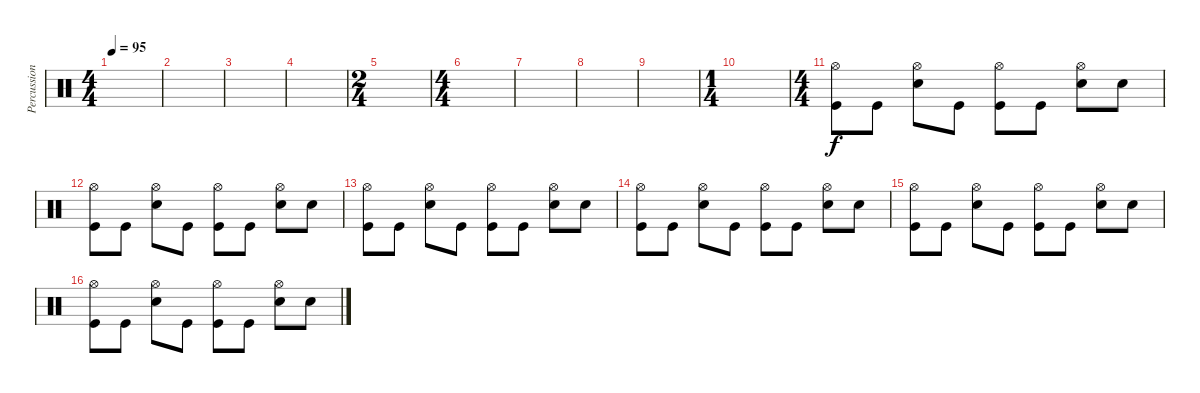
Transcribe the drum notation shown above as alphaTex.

\track ("Percussion" "Percussion") {instrument percussion}
\staff {score}
\articulation defaults
\ts (4 4)
\tempo 95
\clef neutral
\ks c
|
|
|
|
\ts (2 4)
|
\ts (4 4)
|
|
|
|
\ts (1 4)
|
\ts (4 4)
("Kick (hit)" "Hi-Hat (open)").8 "Kick (hit)".8 ("Snare (hit) 2" "Hi-Hat (open)").8 "Kick (hit)".8 ("Kick (hit)" "Hi-Hat (open)").8 "Kick (hit)".8 ("Snare (hit) 2" "Hi-Hat (open)").8 "Snare (hit) 2".8 |
("Kick (hit)" "Hi-Hat (open)").8 "Kick (hit)".8 ("Snare (hit) 2" "Hi-Hat (open)").8 "Kick (hit)".8 ("Kick (hit)" "Hi-Hat (open)").8 "Kick (hit)".8 ("Snare (hit) 2" "Hi-Hat (open)").8 "Snare (hit) 2".8 |
("Kick (hit)" "Hi-Hat (open)").8 "Kick (hit)".8 ("Snare (hit) 2" "Hi-Hat (open)").8 "Kick (hit)".8 ("Kick (hit)" "Hi-Hat (open)").8 "Kick (hit)".8 ("Snare (hit) 2" "Hi-Hat (open)").8 "Snare (hit) 2".8 |
("Kick (hit)" "Hi-Hat (open)").8 "Kick (hit)".8 ("Snare (hit) 2" "Hi-Hat (open)").8 "Kick (hit)".8 ("Kick (hit)" "Hi-Hat (open)").8 "Kick (hit)".8 ("Snare (hit) 2" "Hi-Hat (open)").8 "Snare (hit) 2".8 |
("Kick (hit)" "Hi-Hat (open)").8 "Kick (hit)".8 ("Snare (hit) 2" "Hi-Hat (open)").8 "Kick (hit)".8 ("Kick (hit)" "Hi-Hat (open)").8 "Kick (hit)".8 ("Snare (hit) 2" "Hi-Hat (open)").8 "Snare (hit) 2".8 |
("Kick (hit)" "Hi-Hat (open)").8 "Kick (hit)".8 ("Snare (hit) 2" "Hi-Hat (open)").8 "Kick (hit)".8 ("Kick (hit)" "Hi-Hat (open)").8 "Kick (hit)".8 ("Snare (hit) 2" "Hi-Hat (open)").8 "Snare (hit) 2".8
